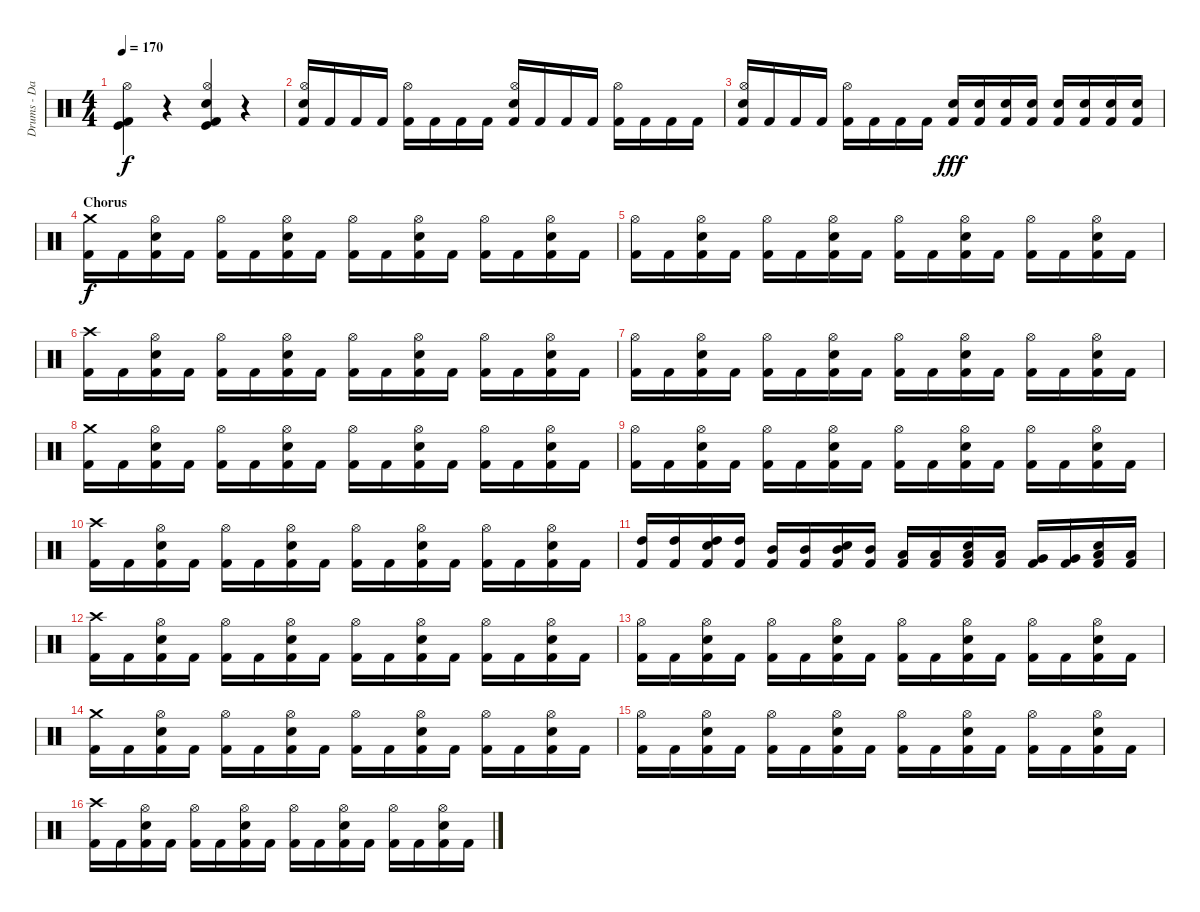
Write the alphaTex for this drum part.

\track ("Drums - Daniel Zimmermann" "Drums - Da") {instrument percussion}
\staff {score}
\articulation defaults
\ts (4 4)
\tempo 170
\clef neutral
\ks c
("Kick (hit) 2" "Kick (hit)" "Hi-Hat (open)").4{dy f} r.4 ("Kick (hit) 2" "Kick (hit)" "Electric Snare (hit)" "Hi-Hat (open)").4 r.4 |
("Kick (hit) 2" "Electric Snare (hit)" "Hi-Hat (open)").16 "Kick (hit) 2".16 "Kick (hit) 2".16 "Kick (hit) 2".16 ("Kick (hit) 2" "Hi-Hat (open)").16 "Kick (hit) 2".16 "Kick (hit) 2".16 "Kick (hit) 2".16 ("Kick (hit) 2" "Electric Snare (hit)" "Hi-Hat (open)").16 "Kick (hit) 2".16 "Kick (hit) 2".16 "Kick (hit) 2".16 ("Kick (hit) 2" "Hi-Hat (open)").16 "Kick (hit) 2".16 "Kick (hit) 2".16 "Kick (hit) 2".16 |
("Kick (hit) 2" "Electric Snare (hit)" "Hi-Hat (open)").16 "Kick (hit) 2".16 "Kick (hit) 2".16 "Kick (hit) 2".16 ("Kick (hit) 2" "Hi-Hat (open)").16 "Kick (hit) 2".16 "Kick (hit) 2".16 "Kick (hit) 2".16 ("Kick (hit) 2" "Electric Snare (hit)").16{dy fff} ("Kick (hit) 2" "Electric Snare (hit)").16 ("Kick (hit) 2" "Electric Snare (hit)").16 ("Kick (hit) 2" "Electric Snare (hit)").16 ("Kick (hit) 2" "Electric Snare (hit)").16 ("Kick (hit) 2" "Electric Snare (hit)").16 ("Kick (hit) 2" "Electric Snare (hit)").16 ("Kick (hit) 2" "Electric Snare (hit)").16 |
\section ("" "Chorus")
("Kick (hit) 2" "Crash medium (hit)").16{dy f} "Kick (hit) 2".16 ("Kick (hit) 2" "Electric Snare (hit)" "Hi-Hat (open)").16 "Kick (hit) 2".16 ("Kick (hit) 2" "Hi-Hat (open)").16 "Kick (hit) 2".16 ("Kick (hit) 2" "Electric Snare (hit)" "Hi-Hat (open)").16 "Kick (hit) 2".16 ("Kick (hit) 2" "Hi-Hat (open)").16 "Kick (hit) 2".16 ("Kick (hit) 2" "Electric Snare (hit)" "Hi-Hat (open)").16 "Kick (hit) 2".16 ("Kick (hit) 2" "Hi-Hat (open)").16 "Kick (hit) 2".16 ("Kick (hit) 2" "Electric Snare (hit)" "Hi-Hat (open)").16 "Kick (hit) 2".16 |
("Kick (hit) 2" "Hi-Hat (open)").16 "Kick (hit) 2".16 ("Kick (hit) 2" "Electric Snare (hit)" "Hi-Hat (open)").16 "Kick (hit) 2".16 ("Kick (hit) 2" "Hi-Hat (open)").16 "Kick (hit) 2".16 ("Kick (hit) 2" "Electric Snare (hit)" "Hi-Hat (open)").16 "Kick (hit) 2".16 ("Kick (hit) 2" "Hi-Hat (open)").16 "Kick (hit) 2".16 ("Kick (hit) 2" "Electric Snare (hit)" "Hi-Hat (open)").16 "Kick (hit) 2".16 ("Kick (hit) 2" "Hi-Hat (open)").16 "Kick (hit) 2".16 ("Kick (hit) 2" "Electric Snare (hit)" "Hi-Hat (open)").16 "Kick (hit) 2".16 |
("Kick (hit) 2" "Crash high (hit)").16 "Kick (hit) 2".16 ("Kick (hit) 2" "Electric Snare (hit)" "Hi-Hat (open)").16 "Kick (hit) 2".16 ("Kick (hit) 2" "Hi-Hat (open)").16 "Kick (hit) 2".16 ("Kick (hit) 2" "Electric Snare (hit)" "Hi-Hat (open)").16 "Kick (hit) 2".16 ("Kick (hit) 2" "Hi-Hat (open)").16 "Kick (hit) 2".16 ("Kick (hit) 2" "Electric Snare (hit)" "Hi-Hat (open)").16 "Kick (hit) 2".16 ("Kick (hit) 2" "Hi-Hat (open)").16 "Kick (hit) 2".16 ("Kick (hit) 2" "Electric Snare (hit)" "Hi-Hat (open)").16 "Kick (hit) 2".16 |
("Kick (hit) 2" "Hi-Hat (open)").16 "Kick (hit) 2".16 ("Kick (hit) 2" "Electric Snare (hit)" "Hi-Hat (open)").16 "Kick (hit) 2".16 ("Kick (hit) 2" "Hi-Hat (open)").16 "Kick (hit) 2".16 ("Kick (hit) 2" "Electric Snare (hit)" "Hi-Hat (open)").16 "Kick (hit) 2".16 ("Kick (hit) 2" "Hi-Hat (open)").16 "Kick (hit) 2".16 ("Kick (hit) 2" "Electric Snare (hit)" "Hi-Hat (open)").16 "Kick (hit) 2".16 ("Kick (hit) 2" "Hi-Hat (open)").16 "Kick (hit) 2".16 ("Kick (hit) 2" "Electric Snare (hit)" "Hi-Hat (open)").16 "Kick (hit) 2".16 |
("Kick (hit) 2" "Crash medium (hit)").16 "Kick (hit) 2".16 ("Kick (hit) 2" "Electric Snare (hit)" "Hi-Hat (open)").16 "Kick (hit) 2".16 ("Kick (hit) 2" "Hi-Hat (open)").16 "Kick (hit) 2".16 ("Kick (hit) 2" "Electric Snare (hit)" "Hi-Hat (open)").16 "Kick (hit) 2".16 ("Kick (hit) 2" "Hi-Hat (open)").16 "Kick (hit) 2".16 ("Kick (hit) 2" "Electric Snare (hit)" "Hi-Hat (open)").16 "Kick (hit) 2".16 ("Kick (hit) 2" "Hi-Hat (open)").16 "Kick (hit) 2".16 ("Kick (hit) 2" "Electric Snare (hit)" "Hi-Hat (open)").16 "Kick (hit) 2".16 |
("Kick (hit) 2" "Hi-Hat (open)").16 "Kick (hit) 2".16 ("Kick (hit) 2" "Electric Snare (hit)" "Hi-Hat (open)").16 "Kick (hit) 2".16 ("Kick (hit) 2" "Hi-Hat (open)").16 "Kick (hit) 2".16 ("Kick (hit) 2" "Electric Snare (hit)" "Hi-Hat (open)").16 "Kick (hit) 2".16 ("Kick (hit) 2" "Hi-Hat (open)").16 "Kick (hit) 2".16 ("Kick (hit) 2" "Electric Snare (hit)" "Hi-Hat (open)").16 "Kick (hit) 2".16 ("Kick (hit) 2" "Hi-Hat (open)").16 "Kick (hit) 2".16 ("Kick (hit) 2" "Electric Snare (hit)" "Hi-Hat (open)").16 "Kick (hit) 2".16 |
("Kick (hit) 2" "Crash high (hit)").16 "Kick (hit) 2".16 ("Kick (hit) 2" "Electric Snare (hit)" "Hi-Hat (open)").16 "Kick (hit) 2".16 ("Kick (hit) 2" "Hi-Hat (open)").16 "Kick (hit) 2".16 ("Kick (hit) 2" "Electric Snare (hit)" "Hi-Hat (open)").16 "Kick (hit) 2".16 ("Kick (hit) 2" "Hi-Hat (open)").16 "Kick (hit) 2".16 ("Kick (hit) 2" "Electric Snare (hit)" "Hi-Hat (open)").16 "Kick (hit) 2".16 ("Kick (hit) 2" "Hi-Hat (open)").16 "Kick (hit) 2".16 ("Kick (hit) 2" "Electric Snare (hit)" "Hi-Hat (open)").16 "Kick (hit) 2".16 |
("Kick (hit) 2" "High Tom (hit)").16 ("Kick (hit) 2" "High Tom (hit)").16 ("Kick (hit) 2" "Electric Snare (hit)" "High Tom (hit)").16 ("Kick (hit) 2" "High Tom (hit)").16 ("Kick (hit) 2" "Mid Tom (hit)").16 ("Kick (hit) 2" "Mid Tom (hit)").16 ("Kick (hit) 2" "Electric Snare (hit)" "Mid Tom (hit)").16 ("Kick (hit) 2" "Mid Tom (hit)").16 ("Kick (hit) 2" "Low Tom (hit)").16 ("Kick (hit) 2" "Low Tom (hit)").16 ("Kick (hit) 2" "Electric Snare (hit)" "Low Tom (hit)").16 ("Kick (hit) 2" "Low Tom (hit)").16 ("Kick (hit) 2" "Very Low Tom (hit)").16 ("Kick (hit) 2" "Very Low Tom (hit)").16 ("Kick (hit) 2" "Electric Snare (hit)" "Low Floor Tom (hit)").16 ("Kick (hit) 2" "Low Floor Tom (hit)").16 |
("Kick (hit) 2" "Crash high (hit)").16 "Kick (hit) 2".16 ("Kick (hit) 2" "Electric Snare (hit)" "Hi-Hat (open)").16 "Kick (hit) 2".16 ("Kick (hit) 2" "Hi-Hat (open)").16 "Kick (hit) 2".16 ("Kick (hit) 2" "Electric Snare (hit)" "Hi-Hat (open)").16 "Kick (hit) 2".16 ("Kick (hit) 2" "Hi-Hat (open)").16 "Kick (hit) 2".16 ("Kick (hit) 2" "Electric Snare (hit)" "Hi-Hat (open)").16 "Kick (hit) 2".16 ("Kick (hit) 2" "Hi-Hat (open)").16 "Kick (hit) 2".16 ("Kick (hit) 2" "Electric Snare (hit)" "Hi-Hat (open)").16 "Kick (hit) 2".16 |
("Kick (hit) 2" "Hi-Hat (open)").16 "Kick (hit) 2".16 ("Kick (hit) 2" "Electric Snare (hit)" "Hi-Hat (open)").16 "Kick (hit) 2".16 ("Kick (hit) 2" "Hi-Hat (open)").16 "Kick (hit) 2".16 ("Kick (hit) 2" "Electric Snare (hit)" "Hi-Hat (open)").16 "Kick (hit) 2".16 ("Kick (hit) 2" "Hi-Hat (open)").16 "Kick (hit) 2".16 ("Kick (hit) 2" "Electric Snare (hit)" "Hi-Hat (open)").16 "Kick (hit) 2".16 ("Kick (hit) 2" "Hi-Hat (open)").16 "Kick (hit) 2".16 ("Kick (hit) 2" "Electric Snare (hit)" "Hi-Hat (open)").16 "Kick (hit) 2".16 |
("Kick (hit) 2" "Crash medium (hit)").16 "Kick (hit) 2".16 ("Kick (hit) 2" "Electric Snare (hit)" "Hi-Hat (open)").16 "Kick (hit) 2".16 ("Kick (hit) 2" "Hi-Hat (open)").16 "Kick (hit) 2".16 ("Kick (hit) 2" "Electric Snare (hit)" "Hi-Hat (open)").16 "Kick (hit) 2".16 ("Kick (hit) 2" "Hi-Hat (open)").16 "Kick (hit) 2".16 ("Kick (hit) 2" "Electric Snare (hit)" "Hi-Hat (open)").16 "Kick (hit) 2".16 ("Kick (hit) 2" "Hi-Hat (open)").16 "Kick (hit) 2".16 ("Kick (hit) 2" "Electric Snare (hit)" "Hi-Hat (open)").16 "Kick (hit) 2".16 |
("Kick (hit) 2" "Hi-Hat (open)").16 "Kick (hit) 2".16 ("Kick (hit) 2" "Electric Snare (hit)" "Hi-Hat (open)").16 "Kick (hit) 2".16 ("Kick (hit) 2" "Hi-Hat (open)").16 "Kick (hit) 2".16 ("Kick (hit) 2" "Electric Snare (hit)" "Hi-Hat (open)").16 "Kick (hit) 2".16 ("Kick (hit) 2" "Hi-Hat (open)").16 "Kick (hit) 2".16 ("Kick (hit) 2" "Electric Snare (hit)" "Hi-Hat (open)").16 "Kick (hit) 2".16 ("Kick (hit) 2" "Hi-Hat (open)").16 "Kick (hit) 2".16 ("Kick (hit) 2" "Electric Snare (hit)" "Hi-Hat (open)").16 "Kick (hit) 2".16 |
("Kick (hit) 2" "Crash high (hit)").16 "Kick (hit) 2".16 ("Kick (hit) 2" "Electric Snare (hit)" "Hi-Hat (open)").16 "Kick (hit) 2".16 ("Kick (hit) 2" "Hi-Hat (open)").16 "Kick (hit) 2".16 ("Kick (hit) 2" "Electric Snare (hit)" "Hi-Hat (open)").16 "Kick (hit) 2".16 ("Kick (hit) 2" "Hi-Hat (open)").16 "Kick (hit) 2".16 ("Kick (hit) 2" "Electric Snare (hit)" "Hi-Hat (open)").16 "Kick (hit) 2".16 ("Kick (hit) 2" "Hi-Hat (open)").16 "Kick (hit) 2".16 ("Kick (hit) 2" "Electric Snare (hit)" "Hi-Hat (open)").16 "Kick (hit) 2".16
